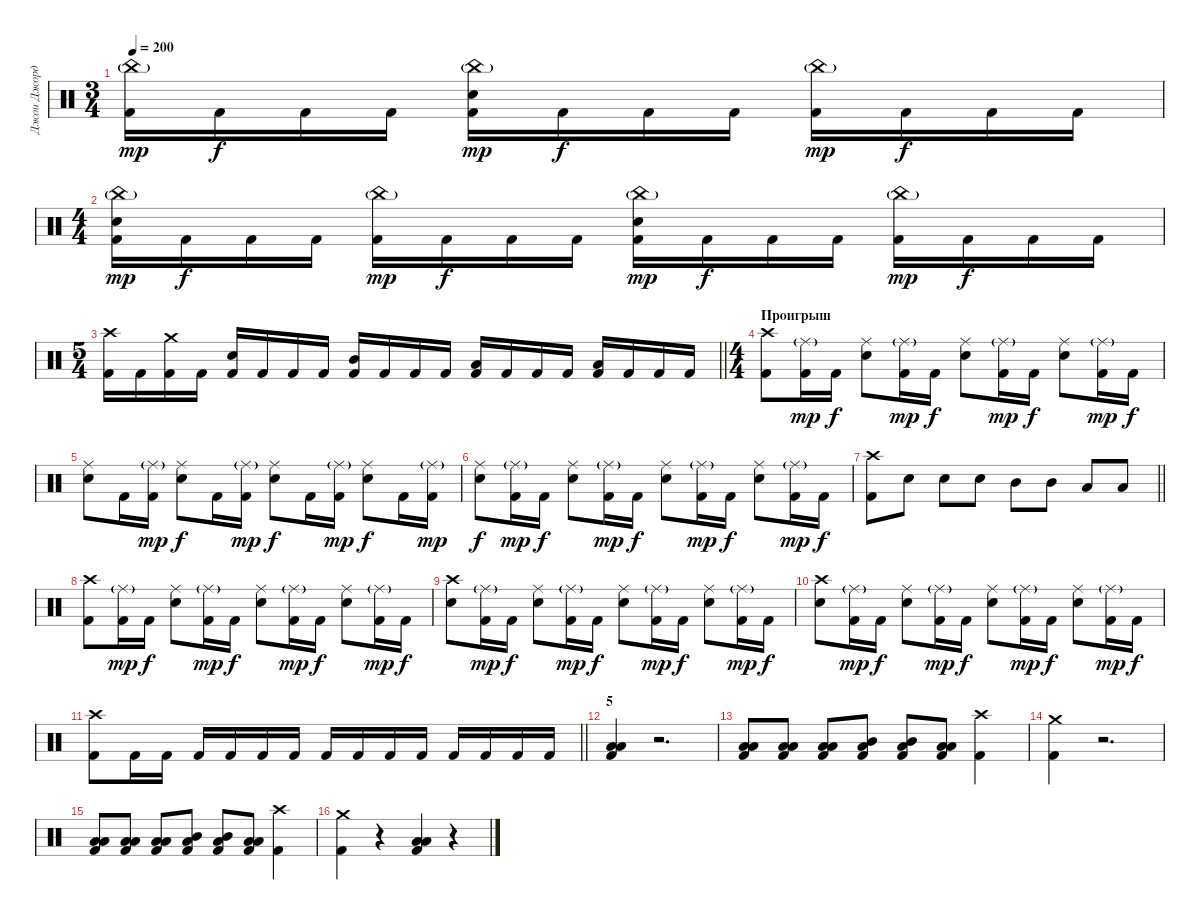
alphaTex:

\track ("Джои Джордисон" "Джои Джорд") {instrument percussion}
\staff {score}
\articulation defaults
\ts (3 4)
\tempo 200
\clef neutral
\ks c
("China (hit)"{g} "Kick (hit) 2").16{dy mp} "Kick (hit) 2".16{dy f} "Kick (hit) 2".16 "Kick (hit) 2".16 ("China (hit)"{g} "Electric Snare (hit)" "Kick (hit) 2").16{dy mp} "Kick (hit) 2".16{dy f} "Kick (hit) 2".16 "Kick (hit) 2".16 ("China (hit)"{g} "Kick (hit) 2").16{dy mp} "Kick (hit) 2".16{dy f} "Kick (hit) 2".16 "Kick (hit) 2".16 |
\ts (4 4)
("China (hit)"{g} "Electric Snare (hit)" "Kick (hit) 2").16{dy mp} "Kick (hit) 2".16{dy f} "Kick (hit) 2".16 "Kick (hit) 2".16 ("China (hit)"{g} "Kick (hit) 2").16{dy mp} "Kick (hit) 2".16{dy f} "Kick (hit) 2".16 "Kick (hit) 2".16 ("China (hit)"{g} "Electric Snare (hit)" "Kick (hit) 2").16{dy mp} "Kick (hit) 2".16{dy f} "Kick (hit) 2".16 "Kick (hit) 2".16 ("China (hit)"{g} "Kick (hit) 2").16{dy mp} "Kick (hit) 2".16{dy f} "Kick (hit) 2".16 "Kick (hit) 2".16 |
\ts (5 4)
\barLineRight lightlight
("Crash high (hit)" "Kick (hit) 2").16 "Kick (hit) 2".16 ("Crash medium (hit)" "Kick (hit) 2").16 "Kick (hit) 2".16 ("Electric Snare (hit)" "Kick (hit) 2").16 "Kick (hit) 2".16 "Kick (hit) 2".16 "Kick (hit) 2".16 ("Mid Tom (hit)" "Kick (hit) 2").16 "Kick (hit) 2".16 "Kick (hit) 2".16 "Kick (hit) 2".16 ("Low Tom (hit)" "Kick (hit) 2").16 "Kick (hit) 2".16 "Kick (hit) 2".16 "Kick (hit) 2".16 ("Low Floor Tom (hit)" "Kick (hit) 2").16 "Kick (hit) 2".16 "Kick (hit) 2".16 "Kick (hit) 2".16 |
\ts (4 4)
\section ("" "Проигрыш")
("Crash high (hit)" "Kick (hit) 2").8 ("Ride (middle)"{g} "Kick (hit) 2").16{dy mp} "Kick (hit) 2".16{dy f} ("Ride (middle)" "Electric Snare (hit)").8 ("Ride (middle)"{g} "Kick (hit) 2").16{dy mp} "Kick (hit) 2".16{dy f} ("Ride (middle)" "Electric Snare (hit)").8 ("Ride (middle)"{g} "Kick (hit) 2").16{dy mp} "Kick (hit) 2".16{dy f} ("Ride (middle)" "Electric Snare (hit)").8 ("Ride (middle)"{g} "Kick (hit) 2").16{dy mp} "Kick (hit) 2".16{dy f} |
("Ride (middle)" "Electric Snare (hit)").8 "Kick (hit) 2".16 ("Ride (middle)"{g} "Kick (hit) 2").16{dy mp} ("Ride (middle)" "Electric Snare (hit)").8{dy f} "Kick (hit) 2".16 ("Ride (middle)"{g} "Kick (hit) 2").16{dy mp} ("Ride (middle)" "Electric Snare (hit)").8{dy f} "Kick (hit) 2".16 ("Ride (middle)"{g} "Kick (hit) 2").16{dy mp} ("Ride (middle)" "Electric Snare (hit)").8{dy f} "Kick (hit) 2".16 ("Ride (middle)"{g} "Kick (hit) 2").16{dy mp} |
("Ride (middle)" "Electric Snare (hit)").8{dy f} ("Ride (middle)"{g} "Kick (hit) 2").16{dy mp} "Kick (hit) 2".16{dy f} ("Ride (middle)" "Electric Snare (hit)").8 ("Ride (middle)"{g} "Kick (hit) 2").16{dy mp} "Kick (hit) 2".16{dy f} ("Ride (middle)" "Electric Snare (hit)").8 ("Ride (middle)"{g} "Kick (hit) 2").16{dy mp} "Kick (hit) 2".16{dy f} ("Ride (middle)" "Electric Snare (hit)").8 ("Ride (middle)"{g} "Kick (hit) 2").16{dy mp} "Kick (hit) 2".16{dy f} |
\barLineRight lightlight
("Crash high (hit)" "Kick (hit) 2").8 "Electric Snare (hit)".8 "Electric Snare (hit)".8 "Electric Snare (hit)".8 "Mid Tom (hit)".8 "Mid Tom (hit)".8 "Low Tom (hit)".8 "Low Tom (hit)".8 |
("Crash high (hit)" "Kick (hit) 2").8 ("Ride (middle)"{g} "Kick (hit) 2").16{dy mp} "Kick (hit) 2".16{dy f} ("Ride (middle)" "Electric Snare (hit)").8 ("Ride (middle)"{g} "Kick (hit) 2").16{dy mp} "Kick (hit) 2".16{dy f} ("Ride (middle)" "Electric Snare (hit)").8 ("Ride (middle)"{g} "Kick (hit) 2").16{dy mp} "Kick (hit) 2".16{dy f} ("Ride (middle)" "Electric Snare (hit)").8 ("Ride (middle)"{g} "Kick (hit) 2").16{dy mp} "Kick (hit) 2".16{dy f} |
("Crash high (hit)" "Electric Snare (hit)").8 ("Ride (middle)"{g} "Kick (hit) 2").16{dy mp} "Kick (hit) 2".16{dy f} ("Ride (middle)" "Electric Snare (hit)").8 ("Ride (middle)"{g} "Kick (hit) 2").16{dy mp} "Kick (hit) 2".16{dy f} ("Ride (middle)" "Electric Snare (hit)").8 ("Ride (middle)"{g} "Kick (hit) 2").16{dy mp} "Kick (hit) 2".16{dy f} ("Ride (middle)" "Electric Snare (hit)").8 ("Ride (middle)"{g} "Kick (hit) 2").16{dy mp} "Kick (hit) 2".16{dy f} |
("Crash high (hit)" "Electric Snare (hit)").8 ("Ride (middle)"{g} "Kick (hit) 2").16{dy mp} "Kick (hit) 2".16{dy f} ("Ride (middle)" "Electric Snare (hit)").8 ("Ride (middle)"{g} "Kick (hit) 2").16{dy mp} "Kick (hit) 2".16{dy f} ("Ride (middle)" "Electric Snare (hit)").8 ("Ride (middle)"{g} "Kick (hit) 2").16{dy mp} "Kick (hit) 2".16{dy f} ("Ride (middle)" "Electric Snare (hit)").8 ("Ride (middle)"{g} "Kick (hit) 2").16{dy mp} "Kick (hit) 2".16{dy f} |
\barLineRight lightlight
("Crash high (hit)" "Kick (hit) 2").8 "Kick (hit) 2".16 "Kick (hit) 2".16 "Kick (hit) 2".16 "Kick (hit) 2".16 "Kick (hit) 2".16 "Kick (hit) 2".16 "Kick (hit) 2".16 "Kick (hit) 2".16 "Kick (hit) 2".16 "Kick (hit) 2".16 "Kick (hit) 2".16 "Kick (hit) 2".16 "Kick (hit) 2".16 "Kick (hit) 2".16 |
\section ("" "5")
("Low Tom (hit)" "Low Floor Tom (hit)" "Kick (hit) 2").4 r.2{d} |
("Low Tom (hit)" "Low Floor Tom (hit)" "Kick (hit) 2").8 ("Low Tom (hit)" "Low Floor Tom (hit)" "Kick (hit) 2").8 ("Low Tom (hit)" "Low Floor Tom (hit)" "Kick (hit) 2").8 ("Mid Tom (hit)" "Low Floor Tom (hit)" "Kick (hit) 2").8 ("Mid Tom (hit)" "Low Floor Tom (hit)" "Kick (hit) 2").8 ("Low Tom (hit)" "Low Floor Tom (hit)" "Kick (hit) 2").8 ("Crash high (hit)" "Kick (hit) 2").4 |
("Crash medium (hit)" "Kick (hit) 2").4 r.2{d} |
("Low Tom (hit)" "Low Floor Tom (hit)" "Kick (hit) 2").8 ("Low Tom (hit)" "Low Floor Tom (hit)" "Kick (hit) 2").8 ("Low Tom (hit)" "Low Floor Tom (hit)" "Kick (hit) 2").8 ("Mid Tom (hit)" "Low Floor Tom (hit)" "Kick (hit) 2").8 ("Mid Tom (hit)" "Low Floor Tom (hit)" "Kick (hit) 2").8 ("Low Tom (hit)" "Low Floor Tom (hit)" "Kick (hit) 2").8 ("Crash high (hit)" "Kick (hit) 2").4 |
("Crash medium (hit)" "Kick (hit) 2").4 r.4 ("Low Tom (hit)" "Low Floor Tom (hit)" "Kick (hit) 2").4 r.4
